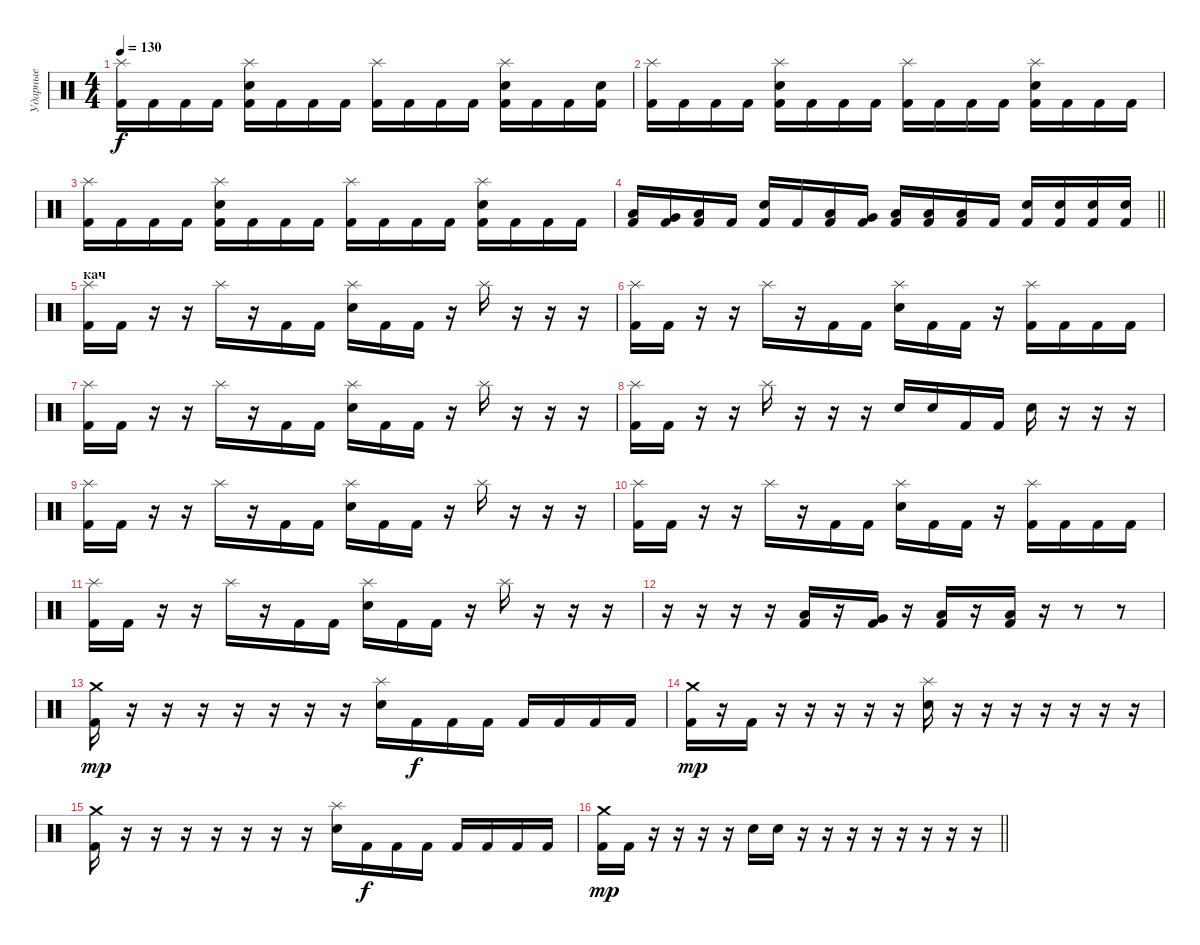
\track ("Ударные" "Ударные") {instrument percussion}
\staff {score}
\articulation defaults
\ts (4 4)
\tempo 130
\clef neutral
\ks c
("Splash (hit)" "Kick (hit) 2").16{dy f} "Kick (hit) 2".16 "Kick (hit) 2".16 "Kick (hit) 2".16 ("Splash (hit)" "Electric Snare (hit)" "Kick (hit) 2").16 "Kick (hit) 2".16 "Kick (hit) 2".16 "Kick (hit) 2".16 ("Splash (hit)" "Kick (hit) 2").16 "Kick (hit) 2".16 "Kick (hit) 2".16 "Kick (hit) 2".16 ("Splash (hit)" "Electric Snare (hit)" "Kick (hit) 2").16 "Kick (hit) 2".16 "Kick (hit) 2".16 ("Electric Snare (hit)" "Kick (hit) 2").16 |
("Splash (hit)" "Kick (hit) 2").16 "Kick (hit) 2".16 "Kick (hit) 2".16 "Kick (hit) 2".16 ("Splash (hit)" "Electric Snare (hit)" "Kick (hit) 2").16 "Kick (hit) 2".16 "Kick (hit) 2".16 "Kick (hit) 2".16 ("Splash (hit)" "Kick (hit) 2").16 "Kick (hit) 2".16 "Kick (hit) 2".16 "Kick (hit) 2".16 ("Splash (hit)" "Electric Snare (hit)" "Kick (hit) 2").16 "Kick (hit) 2".16 "Kick (hit) 2".16 "Kick (hit) 2".16 |
("Splash (hit)" "Kick (hit) 2").16 "Kick (hit) 2".16 "Kick (hit) 2".16 "Kick (hit) 2".16 ("Splash (hit)" "Electric Snare (hit)" "Kick (hit) 2").16 "Kick (hit) 2".16 "Kick (hit) 2".16 "Kick (hit) 2".16 ("Splash (hit)" "Kick (hit) 2").16 "Kick (hit) 2".16 "Kick (hit) 2".16 "Kick (hit) 2".16 ("Splash (hit)" "Electric Snare (hit)" "Kick (hit) 2").16 "Kick (hit) 2".16 "Kick (hit) 2".16 "Kick (hit) 2".16 |
\barLineRight lightlight
("Low Tom (hit)" "Kick (hit) 2").16 ("Very Low Tom (hit)" "Kick (hit) 2").16 ("Low Floor Tom (hit)" "Kick (hit) 2").16 "Kick (hit) 2".16 ("Electric Snare (hit)" "Kick (hit) 2").16 "Kick (hit) 2".16 ("Low Tom (hit)" "Kick (hit) 2").16 ("Very Low Tom (hit)" "Kick (hit) 2").16 ("Low Floor Tom (hit)" "Kick (hit) 2").16 ("Low Floor Tom (hit)" "Kick (hit) 2").16 ("Low Floor Tom (hit)" "Kick (hit) 2").16 "Kick (hit) 2".16 ("Electric Snare (hit)" "Kick (hit) 2").16 ("Electric Snare (hit)" "Kick (hit) 2").16 ("Electric Snare (hit)" "Kick (hit) 2").16 ("Electric Snare (hit)" "Kick (hit) 2").16 |
\section ("" "кач")
("Splash (hit)" "Kick (hit) 2").16 "Kick (hit) 2".16 r.16 r.16 "Splash (hit)".16 r.16 "Kick (hit) 2".16 "Kick (hit) 2".16 ("Splash (hit)" "Electric Snare (hit)").16 "Kick (hit) 2".16 "Kick (hit) 2".16 r.16 "Splash (hit)".16 r.16 r.16 r.16 |
("Splash (hit)" "Kick (hit) 2").16 "Kick (hit) 2".16 r.16 r.16 "Splash (hit)".16 r.16 "Kick (hit) 2".16 "Kick (hit) 2".16 ("Splash (hit)" "Electric Snare (hit)").16 "Kick (hit) 2".16 "Kick (hit) 2".16 r.16 ("Splash (hit)" "Kick (hit) 2").16 "Kick (hit) 2".16 "Kick (hit) 2".16 "Kick (hit) 2".16 |
("Splash (hit)" "Kick (hit) 2").16 "Kick (hit) 2".16 r.16 r.16 "Splash (hit)".16 r.16 "Kick (hit) 2".16 "Kick (hit) 2".16 ("Splash (hit)" "Electric Snare (hit)").16 "Kick (hit) 2".16 "Kick (hit) 2".16 r.16 "Splash (hit)".16 r.16 r.16 r.16 |
("Splash (hit)" "Kick (hit) 2").16 "Kick (hit) 2".16 r.16 r.16 "Splash (hit)".16 r.16 r.16 r.16 "Electric Snare (hit)".16 "Electric Snare (hit)".16 "Kick (hit) 2".16 "Kick (hit) 2".16 "Electric Snare (hit)".16 r.16 r.16 r.16 |
("Splash (hit)" "Kick (hit) 2").16 "Kick (hit) 2".16 r.16 r.16 "Splash (hit)".16 r.16 "Kick (hit) 2".16 "Kick (hit) 2".16 ("Splash (hit)" "Electric Snare (hit)").16 "Kick (hit) 2".16 "Kick (hit) 2".16 r.16 "Splash (hit)".16 r.16 r.16 r.16 |
("Splash (hit)" "Kick (hit) 2").16 "Kick (hit) 2".16 r.16 r.16 "Splash (hit)".16 r.16 "Kick (hit) 2".16 "Kick (hit) 2".16 ("Splash (hit)" "Electric Snare (hit)").16 "Kick (hit) 2".16 "Kick (hit) 2".16 r.16 ("Splash (hit)" "Kick (hit) 2").16 "Kick (hit) 2".16 "Kick (hit) 2".16 "Kick (hit) 2".16 |
("Splash (hit)" "Kick (hit) 2").16 "Kick (hit) 2".16 r.16 r.16 "Splash (hit)".16 r.16 "Kick (hit) 2".16 "Kick (hit) 2".16 ("Splash (hit)" "Electric Snare (hit)").16 "Kick (hit) 2".16 "Kick (hit) 2".16 r.16 "Splash (hit)".16 r.16 r.16 r.16 |
r.16 r.16 r.16 r.16 ("Low Tom (hit)" "Kick (hit) 2").16 r.16 ("Very Low Tom (hit)" "Kick (hit) 2").16 r.16 ("Low Floor Tom (hit)" "Kick (hit) 2").16 r.16 ("Low Floor Tom (hit)" "Kick (hit) 2").16 r.16 r.8 r.8 |
("Crash medium (hit)" "Kick (hit) 2").16{dy mp} r.16 r.16 r.16 r.16 r.16 r.16 r.16 ("Splash (hit)" "Electric Snare (hit)").16 "Kick (hit) 2".16{dy f} "Kick (hit) 2".16 "Kick (hit) 2".16 "Kick (hit) 2".16 "Kick (hit) 2".16 "Kick (hit) 2".16 "Kick (hit) 2".16 |
("Crash medium (hit)" "Kick (hit) 2").16{dy mp} r.16 "Kick (hit) 2".16 r.16 r.16 r.16 r.16 r.16 ("Splash (hit)" "Electric Snare (hit)").16 r.16 r.16 r.16 r.16 r.16 r.16 r.16 |
("Crash medium (hit)" "Kick (hit) 2").16 r.16 r.16 r.16 r.16 r.16 r.16 r.16 ("Splash (hit)" "Electric Snare (hit)").16 "Kick (hit) 2".16{dy f} "Kick (hit) 2".16 "Kick (hit) 2".16 "Kick (hit) 2".16 "Kick (hit) 2".16 "Kick (hit) 2".16 "Kick (hit) 2".16 |
\barLineRight lightlight
("Crash medium (hit)" "Kick (hit) 2").16{dy mp} "Kick (hit) 2".16 r.16 r.16 r.16 r.16 "Electric Snare (hit)".16 "Electric Snare (hit)".16 r.16 r.16 r.16 r.16 r.16 r.16 r.16 r.16
